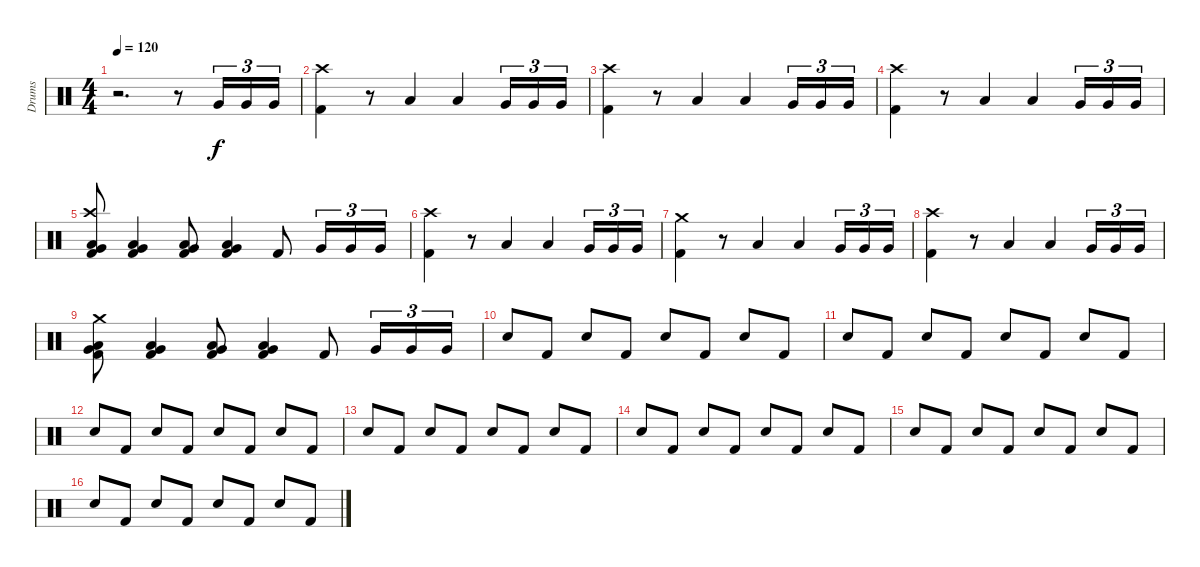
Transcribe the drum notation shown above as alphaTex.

\track ("Drums" "Drums") {instrument percussion}
\staff {score}
\articulation defaults
\ts (4 4)
\tempo 120
\clef neutral
\ks c
r.2{d dy f} r.8 "Very Low Tom (hit)".16{tu (3 2)} "Very Low Tom (hit)".16{tu (3 2)} "Very Low Tom (hit)".16{tu (3 2)} |
("Crash high (hit)" "Kick (hit) 2").4 r.8 "Low Floor Tom (hit)".4 "Low Tom (hit)".4 "Very Low Tom (hit)".16{tu (3 2)} "Very Low Tom (hit)".16{tu (3 2)} "Very Low Tom (hit)".16{tu (3 2)} |
("Crash high (hit)" "Kick (hit) 2").4 r.8 "Low Floor Tom (hit)".4 "Low Tom (hit)".4 "Very Low Tom (hit)".16{tu (3 2)} "Very Low Tom (hit)".16{tu (3 2)} "Very Low Tom (hit)".16{tu (3 2)} |
("Crash high (hit)" "Kick (hit) 2").4 r.8 "Low Floor Tom (hit)".4 "Low Tom (hit)".4 "Very Low Tom (hit)".16{tu (3 2)} "Very Low Tom (hit)".16{tu (3 2)} "Very Low Tom (hit)".16{tu (3 2)} |
("Crash high (hit)" "Very Low Tom (hit)" "Low Tom (hit)" "Kick (hit) 2").8 ("Very Low Tom (hit)" "Low Tom (hit)" "Kick (hit) 2").4 ("Very Low Tom (hit)" "Low Tom (hit)" "Kick (hit) 2").8 ("Low Tom (hit)" "Very Low Tom (hit)" "Kick (hit) 2").4 "Kick (hit) 2".8 "Very Low Tom (hit)".16{tu (3 2)} "Very Low Tom (hit)".16{tu (3 2)} "Very Low Tom (hit)".16{tu (3 2)} |
("Crash high (hit)" "Kick (hit) 2").4 r.8 "Low Floor Tom (hit)".4 "Low Tom (hit)".4 "Very Low Tom (hit)".16{tu (3 2)} "Very Low Tom (hit)".16{tu (3 2)} "Very Low Tom (hit)".16{tu (3 2)} |
("Crash medium (hit)" "Kick (hit) 2").4 r.8 "Low Floor Tom (hit)".4 "Low Tom (hit)".4 "Very Low Tom (hit)".16{tu (3 2)} "Very Low Tom (hit)".16{tu (3 2)} "Very Low Tom (hit)".16{tu (3 2)} |
("Crash high (hit)" "Kick (hit) 2").4 r.8 "Low Floor Tom (hit)".4 "Low Tom (hit)".4 "Very Low Tom (hit)".16{tu (3 2)} "Very Low Tom (hit)".16{tu (3 2)} "Very Low Tom (hit)".16{tu (3 2)} |
("Crash medium (hit)" "Very Low Tom (hit)" "Low Tom (hit)" "Kick (hit) 2").8 ("Very Low Tom (hit)" "Low Tom (hit)" "Kick (hit) 2").4 ("Very Low Tom (hit)" "Low Tom (hit)" "Kick (hit) 2").8 ("Low Tom (hit)" "Very Low Tom (hit)" "Kick (hit) 2").4 "Kick (hit) 2".8 "Very Low Tom (hit)".16{tu (3 2)} "Very Low Tom (hit)".16{tu (3 2)} "Very Low Tom (hit)".16{tu (3 2)} |
"Snare (hit) 2".8 "Kick (hit) 2".8 "Snare (hit) 2".8 "Kick (hit) 2".8 "Snare (hit) 2".8 "Kick (hit) 2".8 "Snare (hit) 2".8 "Kick (hit) 2".8 |
"Snare (hit) 2".8 "Kick (hit) 2".8 "Snare (hit) 2".8 "Kick (hit) 2".8 "Snare (hit) 2".8 "Kick (hit) 2".8 "Snare (hit) 2".8 "Kick (hit) 2".8 |
"Snare (hit) 2".8 "Kick (hit) 2".8 "Snare (hit) 2".8 "Kick (hit) 2".8 "Snare (hit) 2".8 "Kick (hit) 2".8 "Snare (hit) 2".8 "Kick (hit) 2".8 |
"Snare (hit) 2".8 "Kick (hit) 2".8 "Snare (hit) 2".8 "Kick (hit) 2".8 "Snare (hit) 2".8 "Kick (hit) 2".8 "Snare (hit) 2".8 "Kick (hit) 2".8 |
"Snare (hit) 2".8 "Kick (hit) 2".8 "Snare (hit) 2".8 "Kick (hit) 2".8 "Snare (hit) 2".8 "Kick (hit) 2".8 "Snare (hit) 2".8 "Kick (hit) 2".8 |
"Snare (hit) 2".8 "Kick (hit) 2".8 "Snare (hit) 2".8 "Kick (hit) 2".8 "Snare (hit) 2".8 "Kick (hit) 2".8 "Snare (hit) 2".8 "Kick (hit) 2".8 |
"Snare (hit) 2".8 "Kick (hit) 2".8 "Snare (hit) 2".8 "Kick (hit) 2".8 "Snare (hit) 2".8 "Kick (hit) 2".8 "Snare (hit) 2".8 "Kick (hit) 2".8
